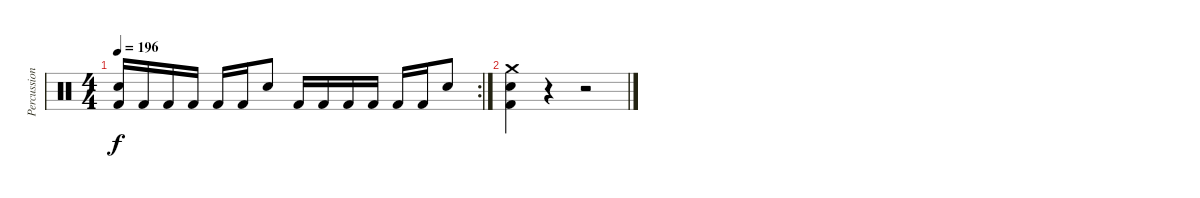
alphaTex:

\track ("Percussions" "Percussion") {instrument percussion}
\staff {score}
\articulation defaults
\rc 2
\ts (4 4)
\tempo 196
\clef neutral
\ks c
("Kick (hit) 2" "Snare (hit) 2").16{dy f} "Kick (hit) 2".16 "Kick (hit) 2".16 "Kick (hit) 2".16 "Kick (hit) 2".16 "Kick (hit) 2".16 "Snare (hit) 2".8 "Kick (hit) 2".16 "Kick (hit) 2".16 "Kick (hit) 2".16 "Kick (hit) 2".16 "Kick (hit) 2".16 "Kick (hit) 2".16 "Snare (hit) 2".8 |
("Kick (hit) 2" "Crash medium (hit)" "Snare (hit) 2").4 r.4 r.2
